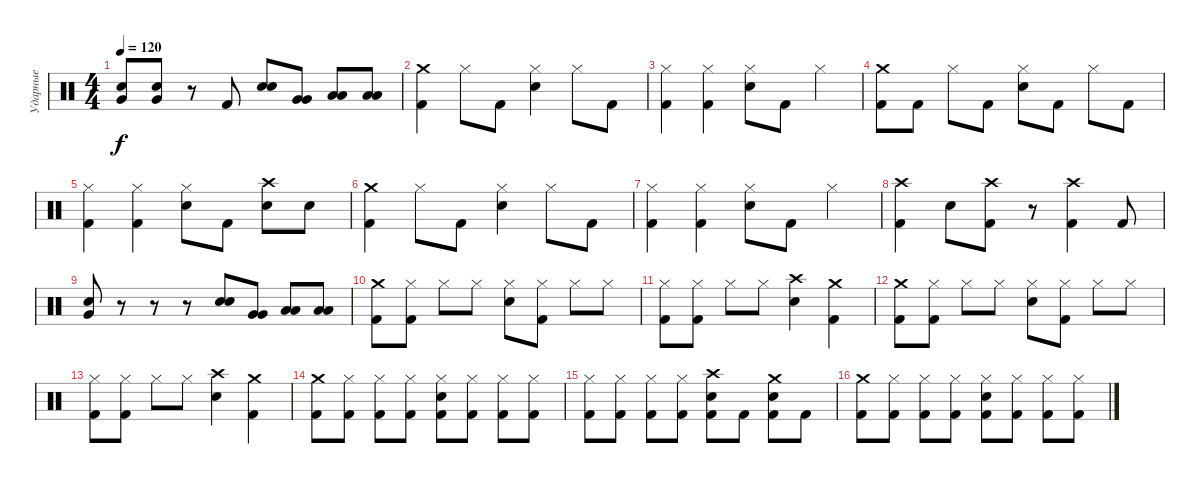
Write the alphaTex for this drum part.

\track ("Ударные" "Ударные") {instrument percussion}
\staff {score}
\articulation defaults
\ts (4 4)
\tempo 120
\clef neutral
\ks c
("Snare (hit) 2" "Very Low Tom (hit)").8{dy f} ("Snare (hit) 2" "Very Low Tom (hit)").8 r.8 "Kick (hit) 2".8 ("Snare (hit) 2" "Snare (hit) 2").8 ("Very Low Tom (hit)" "Very Low Tom (hit)").8 ("Low Floor Tom (hit)" "Low Floor Tom (hit)").8 ("Low Floor Tom (hit)" "Low Floor Tom (hit)").8 |
("Crash medium (hit)" "Kick (hit) 2").4 "Hi-Hat (closed)".8 "Kick (hit) 2".8 ("Hi-Hat (closed)" "Snare (hit) 2").4 "Hi-Hat (closed)".8 "Kick (hit) 2".8 |
("Hi-Hat (closed)" "Kick (hit) 2").4 ("Hi-Hat (closed)" "Kick (hit) 2").4 ("Hi-Hat (closed)" "Snare (hit) 2").8 "Kick (hit) 2".8 "Hi-Hat (closed)".4 |
("Crash medium (hit)" "Kick (hit) 2").8 "Kick (hit) 2".8 "Hi-Hat (closed)".8 "Kick (hit) 2".8 ("Hi-Hat (closed)" "Snare (hit) 2").8 "Kick (hit) 2".8 "Hi-Hat (closed)".8 "Kick (hit) 2".8 |
("Hi-Hat (closed)" "Kick (hit) 2").4 ("Hi-Hat (closed)" "Kick (hit) 2").4 ("Hi-Hat (closed)" "Snare (hit) 2").8 "Kick (hit) 2".8 ("Crash high (hit)" "Snare (hit) 2").8 "Snare (hit) 2".8 |
("Crash medium (hit)" "Kick (hit) 2").4 "Hi-Hat (closed)".8 "Kick (hit) 2".8 ("Hi-Hat (closed)" "Snare (hit) 2").4 "Hi-Hat (closed)".8 "Kick (hit) 2".8 |
("Hi-Hat (closed)" "Kick (hit) 2").4 ("Hi-Hat (closed)" "Kick (hit) 2").4 ("Hi-Hat (closed)" "Snare (hit) 2").8 "Kick (hit) 2".8 "Hi-Hat (closed)".4 |
("Crash high (hit)" "Kick (hit) 2").4 "Snare (hit) 2".8 ("Crash high (hit)" "Kick (hit) 2").8 r.8 ("Crash high (hit)" "Kick (hit) 2").4 "Kick (hit) 2".8 |
("Snare (hit) 2" "Very Low Tom (hit)").8 r.8 r.8 r.8 ("Snare (hit) 2" "Snare (hit) 2").8 ("Very Low Tom (hit)" "Very Low Tom (hit)").8 ("Low Floor Tom (hit)" "Low Floor Tom (hit)").8 ("Low Floor Tom (hit)" "Low Floor Tom (hit)").8 |
("Crash medium (hit)" "Kick (hit) 2").8 ("Hi-Hat (closed)" "Kick (hit) 2").8 "Hi-Hat (closed)".8 "Hi-Hat (closed)".8 ("Hi-Hat (closed)" "Snare (hit) 2").8 ("Hi-Hat (closed)" "Kick (hit) 2").8 "Hi-Hat (closed)".8 "Hi-Hat (closed)".8 |
("Hi-Hat (closed)" "Kick (hit) 2").8 ("Hi-Hat (closed)" "Kick (hit) 2").8 "Hi-Hat (closed)".8 "Hi-Hat (closed)".8 ("Crash high (hit)" "Snare (hit) 2").4 ("Crash medium (hit)" "Kick (hit) 2").4 |
("Crash medium (hit)" "Kick (hit) 2").8 ("Hi-Hat (closed)" "Kick (hit) 2").8 "Hi-Hat (closed)".8 "Hi-Hat (closed)".8 ("Hi-Hat (closed)" "Snare (hit) 2").8 ("Hi-Hat (closed)" "Kick (hit) 2").8 "Hi-Hat (closed)".8 "Hi-Hat (closed)".8 |
("Hi-Hat (closed)" "Kick (hit) 2").8 ("Hi-Hat (closed)" "Kick (hit) 2").8 "Hi-Hat (closed)".8 "Hi-Hat (closed)".8 ("Crash high (hit)" "Snare (hit) 2").4 ("Crash medium (hit)" "Kick (hit) 2").4 |
("Crash medium (hit)" "Kick (hit) 2").8 ("Hi-Hat (closed)" "Kick (hit) 2").8 ("Hi-Hat (closed)" "Kick (hit) 2").8 ("Hi-Hat (closed)" "Kick (hit) 2").8 ("Hi-Hat (closed)" "Snare (hit) 2" "Kick (hit) 2").8 ("Hi-Hat (closed)" "Kick (hit) 2").8 ("Hi-Hat (closed)" "Kick (hit) 2").8 ("Hi-Hat (closed)" "Kick (hit) 2").8 |
("Hi-Hat (closed)" "Kick (hit) 2").8 ("Hi-Hat (closed)" "Kick (hit) 2").8 ("Hi-Hat (closed)" "Kick (hit) 2").8 ("Hi-Hat (closed)" "Kick (hit) 2").8 ("Crash high (hit)" "Snare (hit) 2" "Kick (hit) 2").8 "Kick (hit) 2".8 ("Crash medium (hit)" "Snare (hit) 2" "Kick (hit) 2").8 "Kick (hit) 2".8 |
("Crash medium (hit)" "Kick (hit) 2").8 ("Hi-Hat (closed)" "Kick (hit) 2").8 ("Hi-Hat (closed)" "Kick (hit) 2").8 ("Hi-Hat (closed)" "Kick (hit) 2").8 ("Hi-Hat (closed)" "Snare (hit) 2" "Kick (hit) 2").8 ("Hi-Hat (closed)" "Kick (hit) 2").8 ("Hi-Hat (closed)" "Kick (hit) 2").8 ("Hi-Hat (closed)" "Kick (hit) 2").8
